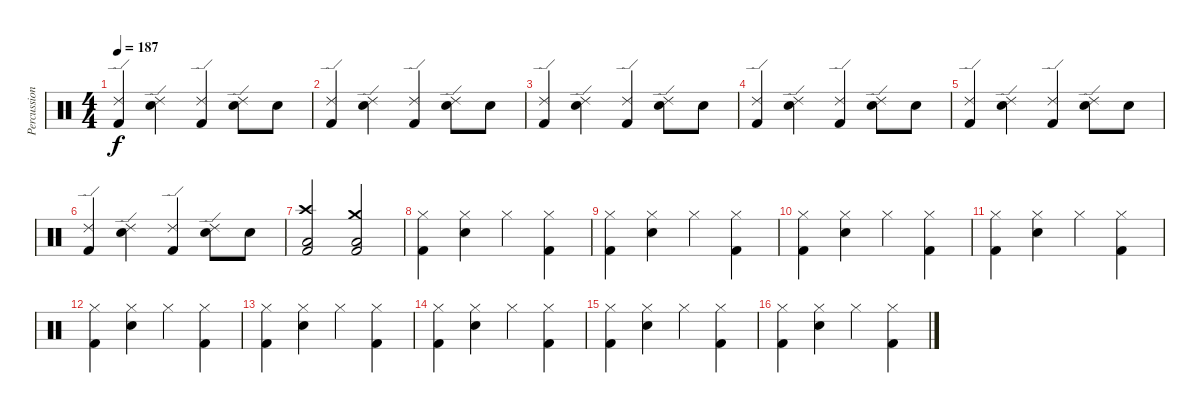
\track ("Percussion" "Percussion") {instrument percussion}
\staff {score}
\articulation defaults
\ts (4 4)
\tempo 187
\clef neutral
\ks c
("Kick (hit) 2" "Ride (edge) 2").4{dy f} ("Snare (hit) 2" "Ride (edge) 2").4 ("Kick (hit) 2" "Ride (edge) 2").4 ("Snare (hit) 2" "Ride (edge) 2").8 "Snare (hit) 2".8 |
("Kick (hit) 2" "Ride (edge) 2").4 ("Snare (hit) 2" "Ride (edge) 2").4 ("Kick (hit) 2" "Ride (edge) 2").4 ("Snare (hit) 2" "Ride (edge) 2").8 "Snare (hit) 2".8 |
("Kick (hit) 2" "Ride (edge) 2").4 ("Snare (hit) 2" "Ride (edge) 2").4 ("Kick (hit) 2" "Ride (edge) 2").4 ("Snare (hit) 2" "Ride (edge) 2").8 "Snare (hit) 2".8 |
("Kick (hit) 2" "Ride (edge) 2").4 ("Snare (hit) 2" "Ride (edge) 2").4 ("Kick (hit) 2" "Ride (edge) 2").4 ("Snare (hit) 2" "Ride (edge) 2").8 "Snare (hit) 2".8 |
("Kick (hit) 2" "Ride (edge) 2").4 ("Snare (hit) 2" "Ride (edge) 2").4 ("Kick (hit) 2" "Ride (edge) 2").4 ("Snare (hit) 2" "Ride (edge) 2").8 "Snare (hit) 2".8 |
("Kick (hit) 2" "Ride (edge) 2").4 ("Snare (hit) 2" "Ride (edge) 2").4 ("Kick (hit) 2" "Ride (edge) 2").4 ("Snare (hit) 2" "Ride (edge) 2").8 "Snare (hit) 2".8 |
("Crash high (hit)" "Kick (hit) 2" "Low Floor Tom (hit)").2 ("Crash medium (hit)" "Kick (hit) 2" "Low Tom (hit)").2 |
("Kick (hit) 2" "Hi-Hat (closed)").4 ("Snare (hit) 2" "Hi-Hat (closed)").4 "Hi-Hat (closed)".4 ("Kick (hit) 2" "Hi-Hat (closed)").4 |
("Kick (hit) 2" "Hi-Hat (closed)").4 ("Snare (hit) 2" "Hi-Hat (closed)").4 "Hi-Hat (closed)".4 ("Kick (hit) 2" "Hi-Hat (closed)").4 |
("Kick (hit) 2" "Hi-Hat (closed)").4 ("Snare (hit) 2" "Hi-Hat (closed)").4 "Hi-Hat (closed)".4 ("Kick (hit) 2" "Hi-Hat (closed)").4 |
("Kick (hit) 2" "Hi-Hat (closed)").4 ("Snare (hit) 2" "Hi-Hat (closed)").4 "Hi-Hat (closed)".4 ("Kick (hit) 2" "Hi-Hat (closed)").4 |
("Kick (hit) 2" "Hi-Hat (closed)").4 ("Snare (hit) 2" "Hi-Hat (closed)").4 "Hi-Hat (closed)".4 ("Kick (hit) 2" "Hi-Hat (closed)").4 |
("Kick (hit) 2" "Hi-Hat (closed)").4 ("Snare (hit) 2" "Hi-Hat (closed)").4 "Hi-Hat (closed)".4 ("Kick (hit) 2" "Hi-Hat (closed)").4 |
("Kick (hit) 2" "Hi-Hat (closed)").4 ("Snare (hit) 2" "Hi-Hat (closed)").4 "Hi-Hat (closed)".4 ("Kick (hit) 2" "Hi-Hat (closed)").4 |
("Kick (hit) 2" "Hi-Hat (closed)").4 ("Snare (hit) 2" "Hi-Hat (closed)").4 "Hi-Hat (closed)".4 ("Kick (hit) 2" "Hi-Hat (closed)").4 |
("Kick (hit) 2" "Hi-Hat (closed)").4 ("Snare (hit) 2" "Hi-Hat (closed)").4 "Hi-Hat (closed)".4 ("Kick (hit) 2" "Hi-Hat (closed)").4
